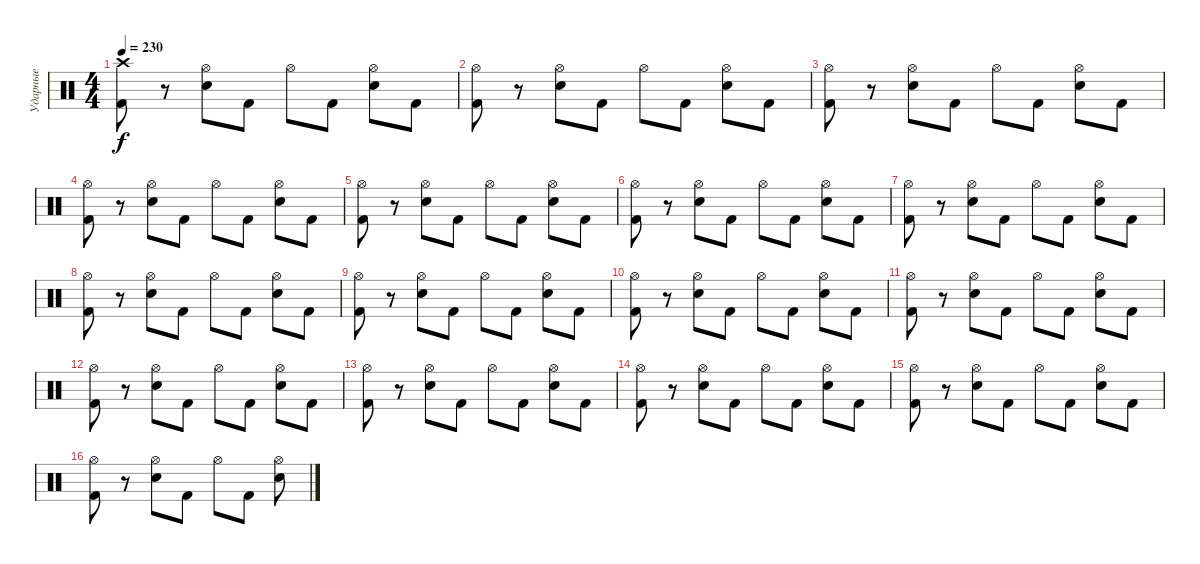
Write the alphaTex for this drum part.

\track ("Ударные" "Ударные") {instrument percussion}
\staff {score}
\articulation defaults
\ts (4 4)
\tempo 230
\clef neutral
\ks c
("Crash high (hit)" "Kick (hit) 2").8{dy f} r.8 ("Hi-Hat (open)" "Electric Snare (hit)").8 "Kick (hit) 2".8 "Hi-Hat (open)".8 "Kick (hit) 2".8 ("Hi-Hat (open)" "Electric Snare (hit)").8 "Kick (hit) 2".8 |
("Hi-Hat (open)" "Kick (hit) 2").8 r.8 ("Hi-Hat (open)" "Electric Snare (hit)").8 "Kick (hit) 2".8 "Hi-Hat (open)".8 "Kick (hit) 2".8 ("Hi-Hat (open)" "Electric Snare (hit)").8 "Kick (hit) 2".8 |
("Hi-Hat (open)" "Kick (hit) 2").8 r.8 ("Hi-Hat (open)" "Electric Snare (hit)").8 "Kick (hit) 2".8 "Hi-Hat (open)".8 "Kick (hit) 2".8 ("Hi-Hat (open)" "Electric Snare (hit)").8 "Kick (hit) 2".8 |
("Hi-Hat (open)" "Kick (hit) 2").8 r.8 ("Hi-Hat (open)" "Electric Snare (hit)").8 "Kick (hit) 2".8 "Hi-Hat (open)".8 "Kick (hit) 2".8 ("Hi-Hat (open)" "Electric Snare (hit)").8 "Kick (hit) 2".8 |
("Hi-Hat (open)" "Kick (hit) 2").8 r.8 ("Hi-Hat (open)" "Electric Snare (hit)").8 "Kick (hit) 2".8 "Hi-Hat (open)".8 "Kick (hit) 2".8 ("Hi-Hat (open)" "Electric Snare (hit)").8 "Kick (hit) 2".8 |
("Hi-Hat (open)" "Kick (hit) 2").8 r.8 ("Hi-Hat (open)" "Electric Snare (hit)").8 "Kick (hit) 2".8 "Hi-Hat (open)".8 "Kick (hit) 2".8 ("Hi-Hat (open)" "Electric Snare (hit)").8 "Kick (hit) 2".8 |
("Hi-Hat (open)" "Kick (hit) 2").8 r.8 ("Hi-Hat (open)" "Electric Snare (hit)").8 "Kick (hit) 2".8 "Hi-Hat (open)".8 "Kick (hit) 2".8 ("Hi-Hat (open)" "Electric Snare (hit)").8 "Kick (hit) 2".8 |
("Hi-Hat (open)" "Kick (hit) 2").8 r.8 ("Hi-Hat (open)" "Electric Snare (hit)").8 "Kick (hit) 2".8 "Hi-Hat (open)".8 "Kick (hit) 2".8 ("Hi-Hat (open)" "Electric Snare (hit)").8 "Kick (hit) 2".8 |
("Hi-Hat (open)" "Kick (hit) 2").8 r.8 ("Hi-Hat (open)" "Electric Snare (hit)").8 "Kick (hit) 2".8 "Hi-Hat (open)".8 "Kick (hit) 2".8 ("Hi-Hat (open)" "Electric Snare (hit)").8 "Kick (hit) 2".8 |
("Hi-Hat (open)" "Kick (hit) 2").8 r.8 ("Hi-Hat (open)" "Electric Snare (hit)").8 "Kick (hit) 2".8 "Hi-Hat (open)".8 "Kick (hit) 2".8 ("Hi-Hat (open)" "Electric Snare (hit)").8 "Kick (hit) 2".8 |
("Hi-Hat (open)" "Kick (hit) 2").8 r.8 ("Hi-Hat (open)" "Electric Snare (hit)").8 "Kick (hit) 2".8 "Hi-Hat (open)".8 "Kick (hit) 2".8 ("Hi-Hat (open)" "Electric Snare (hit)").8 "Kick (hit) 2".8 |
("Hi-Hat (open)" "Kick (hit) 2").8 r.8 ("Hi-Hat (open)" "Electric Snare (hit)").8 "Kick (hit) 2".8 "Hi-Hat (open)".8 "Kick (hit) 2".8 ("Hi-Hat (open)" "Electric Snare (hit)").8 "Kick (hit) 2".8 |
("Hi-Hat (open)" "Kick (hit) 2").8 r.8 ("Hi-Hat (open)" "Electric Snare (hit)").8 "Kick (hit) 2".8 "Hi-Hat (open)".8 "Kick (hit) 2".8 ("Hi-Hat (open)" "Electric Snare (hit)").8 "Kick (hit) 2".8 |
("Hi-Hat (open)" "Kick (hit) 2").8 r.8 ("Hi-Hat (open)" "Electric Snare (hit)").8 "Kick (hit) 2".8 "Hi-Hat (open)".8 "Kick (hit) 2".8 ("Hi-Hat (open)" "Electric Snare (hit)").8 "Kick (hit) 2".8 |
("Hi-Hat (open)" "Kick (hit) 2").8 r.8 ("Hi-Hat (open)" "Electric Snare (hit)").8 "Kick (hit) 2".8 "Hi-Hat (open)".8 "Kick (hit) 2".8 ("Hi-Hat (open)" "Electric Snare (hit)").8 "Kick (hit) 2".8 |
("Hi-Hat (open)" "Kick (hit) 2").8 r.8 ("Hi-Hat (open)" "Electric Snare (hit)").8 "Kick (hit) 2".8 "Hi-Hat (open)".8 "Kick (hit) 2".8 ("Hi-Hat (open)" "Electric Snare (hit)").8
